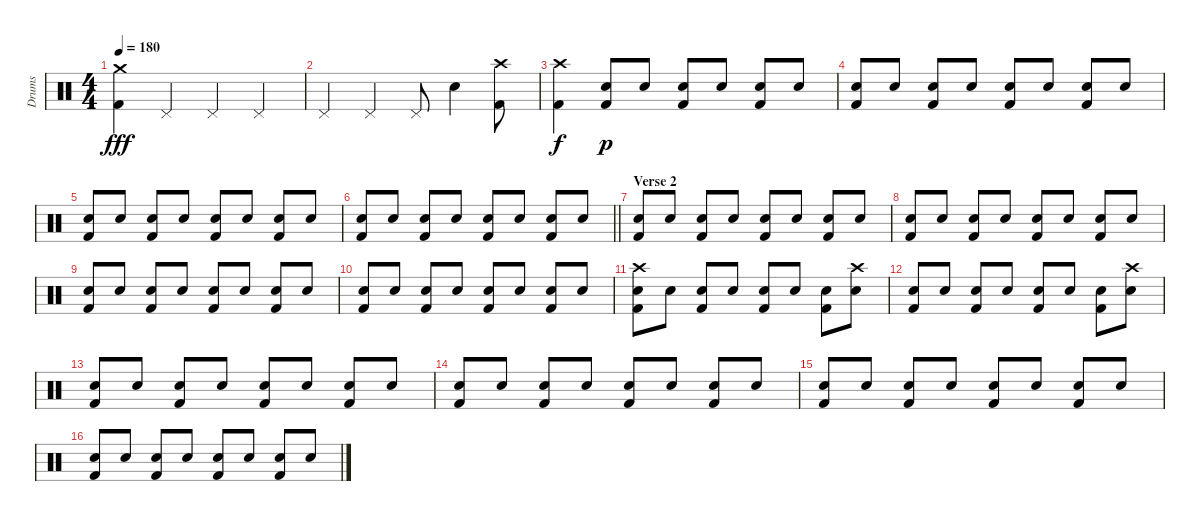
\track ("Drums" "Drums") {instrument percussion}
\staff {score}
\articulation defaults
\ts (4 4)
\tempo 180
\clef neutral
\ks c
("Crash medium (hit)" "Kick (hit) 2").4{dy fff} "Pedal Hi-Hat (hit)".4 "Pedal Hi-Hat (hit)".4 "Pedal Hi-Hat (hit)".4 |
"Pedal Hi-Hat (hit)".4 "Pedal Hi-Hat (hit)".4 "Pedal Hi-Hat (hit)".8 "Electric Snare (hit)".4 ("Crash high (hit)" "Kick (hit) 2").8 |
("Crash high (hit)" "Kick (hit) 2").4{dy f} ("Electric Snare (hit)" "Kick (hit) 2").8{dy p} "Electric Snare (hit)".8 ("Electric Snare (hit)" "Kick (hit) 2").8 "Electric Snare (hit)".8 ("Electric Snare (hit)" "Kick (hit) 2").8 "Electric Snare (hit)".8 |
("Electric Snare (hit)" "Kick (hit) 2").8 "Electric Snare (hit)".8 ("Electric Snare (hit)" "Kick (hit) 2").8 "Electric Snare (hit)".8 ("Electric Snare (hit)" "Kick (hit) 2").8 "Electric Snare (hit)".8 ("Electric Snare (hit)" "Kick (hit) 2").8 "Electric Snare (hit)".8 |
("Electric Snare (hit)" "Kick (hit) 2").8 "Electric Snare (hit)".8 ("Electric Snare (hit)" "Kick (hit) 2").8 "Electric Snare (hit)".8 ("Electric Snare (hit)" "Kick (hit) 2").8 "Electric Snare (hit)".8 ("Electric Snare (hit)" "Kick (hit) 2").8 "Electric Snare (hit)".8 |
\barLineRight lightlight
("Electric Snare (hit)" "Kick (hit) 2").8 "Electric Snare (hit)".8 ("Electric Snare (hit)" "Kick (hit) 2").8 "Electric Snare (hit)".8 ("Electric Snare (hit)" "Kick (hit) 2").8 "Electric Snare (hit)".8 ("Electric Snare (hit)" "Kick (hit) 2").8 "Electric Snare (hit)".8 |
\section ("" "Verse 2")
("Electric Snare (hit)" "Kick (hit) 2").8 "Electric Snare (hit)".8 ("Electric Snare (hit)" "Kick (hit) 2").8 "Electric Snare (hit)".8 ("Electric Snare (hit)" "Kick (hit) 2").8 "Electric Snare (hit)".8 ("Electric Snare (hit)" "Kick (hit) 2").8 "Electric Snare (hit)".8 |
("Electric Snare (hit)" "Kick (hit) 2").8 "Electric Snare (hit)".8 ("Electric Snare (hit)" "Kick (hit) 2").8 "Electric Snare (hit)".8 ("Electric Snare (hit)" "Kick (hit) 2").8 "Electric Snare (hit)".8 ("Electric Snare (hit)" "Kick (hit) 2").8 "Electric Snare (hit)".8 |
("Electric Snare (hit)" "Kick (hit) 2").8 "Electric Snare (hit)".8 ("Electric Snare (hit)" "Kick (hit) 2").8 "Electric Snare (hit)".8 ("Electric Snare (hit)" "Kick (hit) 2").8 "Electric Snare (hit)".8 ("Electric Snare (hit)" "Kick (hit) 2").8 "Electric Snare (hit)".8 |
("Electric Snare (hit)" "Kick (hit) 2").8 "Electric Snare (hit)".8 ("Electric Snare (hit)" "Kick (hit) 2").8 "Electric Snare (hit)".8 ("Electric Snare (hit)" "Kick (hit) 2").8 "Electric Snare (hit)".8 ("Electric Snare (hit)" "Kick (hit) 2").8 "Electric Snare (hit)".8 |
("Crash high (hit)" "Electric Snare (hit)" "Kick (hit) 2").8 "Electric Snare (hit)".8 ("Electric Snare (hit)" "Kick (hit) 2").8 "Electric Snare (hit)".8 ("Electric Snare (hit)" "Kick (hit) 2").8 "Electric Snare (hit)".8 ("Electric Snare (hit)" "Kick (hit) 2").8 ("Crash high (hit)" "Electric Snare (hit)").8 |
("Electric Snare (hit)" "Kick (hit) 2").8 "Electric Snare (hit)".8 ("Electric Snare (hit)" "Kick (hit) 2").8 "Electric Snare (hit)".8 ("Electric Snare (hit)" "Kick (hit) 2").8 "Electric Snare (hit)".8 ("Electric Snare (hit)" "Kick (hit) 2").8 ("Crash high (hit)" "Electric Snare (hit)").8 |
("Electric Snare (hit)" "Kick (hit) 2").8 "Electric Snare (hit)".8 ("Electric Snare (hit)" "Kick (hit) 2").8 "Electric Snare (hit)".8 ("Electric Snare (hit)" "Kick (hit) 2").8 "Electric Snare (hit)".8 ("Electric Snare (hit)" "Kick (hit) 2").8 "Electric Snare (hit)".8 |
("Electric Snare (hit)" "Kick (hit) 2").8 "Electric Snare (hit)".8 ("Electric Snare (hit)" "Kick (hit) 2").8 "Electric Snare (hit)".8 ("Electric Snare (hit)" "Kick (hit) 2").8 "Electric Snare (hit)".8 ("Electric Snare (hit)" "Kick (hit) 2").8 "Electric Snare (hit)".8 |
("Electric Snare (hit)" "Kick (hit) 2").8 "Electric Snare (hit)".8 ("Electric Snare (hit)" "Kick (hit) 2").8 "Electric Snare (hit)".8 ("Electric Snare (hit)" "Kick (hit) 2").8 "Electric Snare (hit)".8 ("Electric Snare (hit)" "Kick (hit) 2").8 "Electric Snare (hit)".8 |
("Electric Snare (hit)" "Kick (hit) 2").8 "Electric Snare (hit)".8 ("Electric Snare (hit)" "Kick (hit) 2").8 "Electric Snare (hit)".8 ("Electric Snare (hit)" "Kick (hit) 2").8 "Electric Snare (hit)".8 ("Electric Snare (hit)" "Kick (hit) 2").8 "Electric Snare (hit)".8
